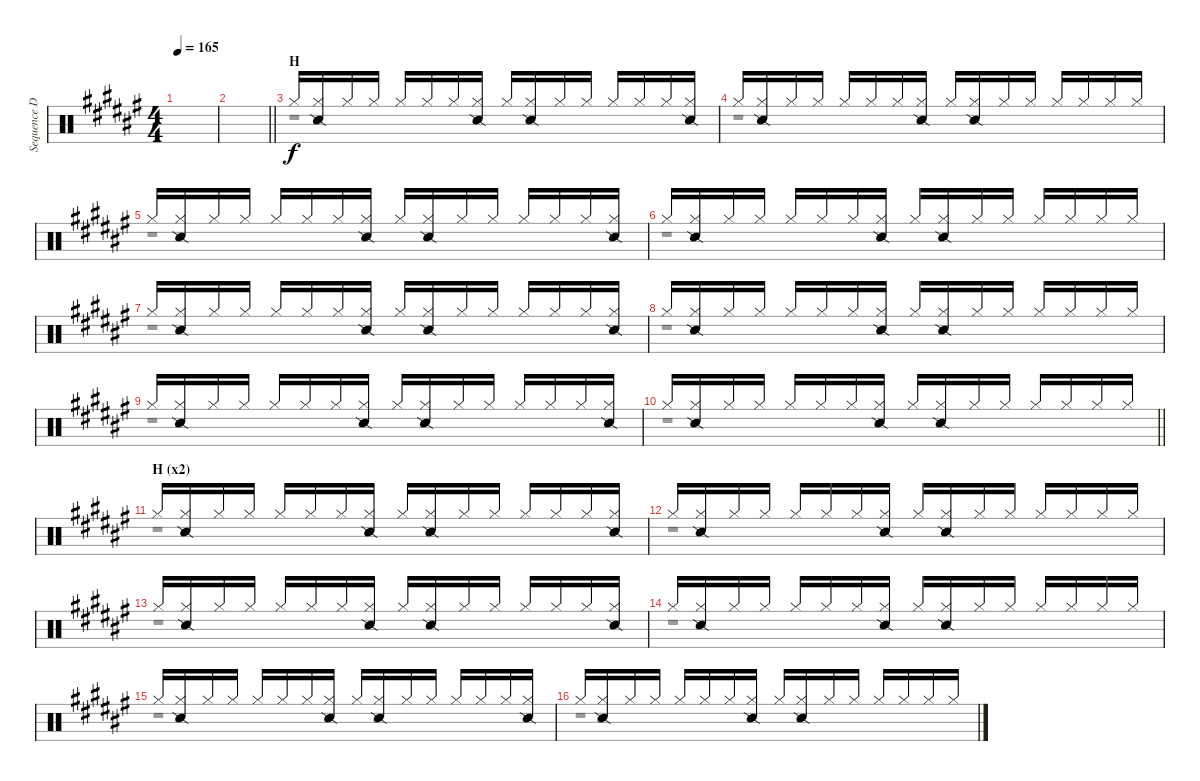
\track ("Sequence Drums" "Sequence D") {instrument percussion}
\staff {score}
\articulation defaults
\voice
\ts (4 4)
\tempo 165
\clef neutral
\ks f#
|
\barLineRight lightlight
|
\section ("" "H")
"Hi-Hat (closed)".16 ("Hi-Hat (closed)" "Snare (side stick) 2").16 "Hi-Hat (closed)".16 "Hi-Hat (closed)".16 "Hi-Hat (closed)".16 "Hi-Hat (closed)".16 "Hi-Hat (closed)".16 ("Hi-Hat (closed)" "Snare (side stick) 2").16 "Hi-Hat (closed)".16 ("Hi-Hat (closed)" "Snare (side stick) 2").16 "Hi-Hat (closed)".16 "Hi-Hat (closed)".16 "Hi-Hat (closed)".16 "Hi-Hat (closed)".16 "Hi-Hat (closed)".16 ("Hi-Hat (closed)" "Snare (side stick) 2").16 |
"Hi-Hat (closed)".16 ("Hi-Hat (closed)" "Snare (side stick) 2").16 "Hi-Hat (closed)".16 "Hi-Hat (closed)".16 "Hi-Hat (closed)".16 "Hi-Hat (closed)".16 "Hi-Hat (closed)".16 ("Hi-Hat (closed)" "Snare (side stick) 2").16 "Hi-Hat (closed)".16 ("Hi-Hat (closed)" "Snare (side stick) 2").16 "Hi-Hat (closed)".16 "Hi-Hat (closed)".16 "Hi-Hat (closed)".16 "Hi-Hat (closed)".16 "Hi-Hat (closed)".16 "Hi-Hat (closed)".16 |
"Hi-Hat (closed)".16 ("Hi-Hat (closed)" "Snare (side stick) 2").16 "Hi-Hat (closed)".16 "Hi-Hat (closed)".16 "Hi-Hat (closed)".16 "Hi-Hat (closed)".16 "Hi-Hat (closed)".16 ("Hi-Hat (closed)" "Snare (side stick) 2").16 "Hi-Hat (closed)".16 ("Hi-Hat (closed)" "Snare (side stick) 2").16 "Hi-Hat (closed)".16 "Hi-Hat (closed)".16 "Hi-Hat (closed)".16 "Hi-Hat (closed)".16 "Hi-Hat (closed)".16 ("Hi-Hat (closed)" "Snare (side stick) 2").16 |
"Hi-Hat (closed)".16 ("Hi-Hat (closed)" "Snare (side stick) 2").16 "Hi-Hat (closed)".16 "Hi-Hat (closed)".16 "Hi-Hat (closed)".16 "Hi-Hat (closed)".16 "Hi-Hat (closed)".16 ("Hi-Hat (closed)" "Snare (side stick) 2").16 "Hi-Hat (closed)".16 ("Hi-Hat (closed)" "Snare (side stick) 2").16 "Hi-Hat (closed)".16 "Hi-Hat (closed)".16 "Hi-Hat (closed)".16 "Hi-Hat (closed)".16 "Hi-Hat (closed)".16 "Hi-Hat (closed)".16 |
"Hi-Hat (closed)".16 ("Hi-Hat (closed)" "Snare (side stick) 2").16 "Hi-Hat (closed)".16 "Hi-Hat (closed)".16 "Hi-Hat (closed)".16 "Hi-Hat (closed)".16 "Hi-Hat (closed)".16 ("Hi-Hat (closed)" "Snare (side stick) 2").16 "Hi-Hat (closed)".16 ("Hi-Hat (closed)" "Snare (side stick) 2").16 "Hi-Hat (closed)".16 "Hi-Hat (closed)".16 "Hi-Hat (closed)".16 "Hi-Hat (closed)".16 "Hi-Hat (closed)".16 ("Hi-Hat (closed)" "Snare (side stick) 2").16 |
"Hi-Hat (closed)".16 ("Hi-Hat (closed)" "Snare (side stick) 2").16 "Hi-Hat (closed)".16 "Hi-Hat (closed)".16 "Hi-Hat (closed)".16 "Hi-Hat (closed)".16 "Hi-Hat (closed)".16 ("Hi-Hat (closed)" "Snare (side stick) 2").16 "Hi-Hat (closed)".16 ("Hi-Hat (closed)" "Snare (side stick) 2").16 "Hi-Hat (closed)".16 "Hi-Hat (closed)".16 "Hi-Hat (closed)".16 "Hi-Hat (closed)".16 "Hi-Hat (closed)".16 "Hi-Hat (closed)".16 |
"Hi-Hat (closed)".16 ("Hi-Hat (closed)" "Snare (side stick) 2").16 "Hi-Hat (closed)".16 "Hi-Hat (closed)".16 "Hi-Hat (closed)".16 "Hi-Hat (closed)".16 "Hi-Hat (closed)".16 ("Hi-Hat (closed)" "Snare (side stick) 2").16 "Hi-Hat (closed)".16 ("Hi-Hat (closed)" "Snare (side stick) 2").16 "Hi-Hat (closed)".16 "Hi-Hat (closed)".16 "Hi-Hat (closed)".16 "Hi-Hat (closed)".16 "Hi-Hat (closed)".16 ("Hi-Hat (closed)" "Snare (side stick) 2").16 |
\barLineRight lightlight "Hi-Hat (closed)".16
("Hi-Hat (closed)" "Snare (side stick) 2").16 "Hi-Hat (closed)".16 "Hi-Hat (closed)".16 "Hi-Hat (closed)".16 "Hi-Hat (closed)".16 "Hi-Hat (closed)".16 ("Hi-Hat (closed)" "Snare (side stick) 2").16 "Hi-Hat (closed)".16 ("Hi-Hat (closed)" "Snare (side stick) 2").16 "Hi-Hat (closed)".16 "Hi-Hat (closed)".16 "Hi-Hat (closed)".16 "Hi-Hat (closed)".16 "Hi-Hat (closed)".16 "Hi-Hat (closed)".16 |
\section ("" "H (x2)")
"Hi-Hat (closed)".16 ("Hi-Hat (closed)" "Snare (side stick) 2").16 "Hi-Hat (closed)".16 "Hi-Hat (closed)".16 "Hi-Hat (closed)".16 "Hi-Hat (closed)".16 "Hi-Hat (closed)".16 ("Hi-Hat (closed)" "Snare (side stick) 2").16 "Hi-Hat (closed)".16 ("Hi-Hat (closed)" "Snare (side stick) 2").16 "Hi-Hat (closed)".16 "Hi-Hat (closed)".16 "Hi-Hat (closed)".16 "Hi-Hat (closed)".16 "Hi-Hat (closed)".16 ("Hi-Hat (closed)" "Snare (side stick) 2").16 |
"Hi-Hat (closed)".16 ("Hi-Hat (closed)" "Snare (side stick) 2").16 "Hi-Hat (closed)".16 "Hi-Hat (closed)".16 "Hi-Hat (closed)".16 "Hi-Hat (closed)".16 "Hi-Hat (closed)".16 ("Hi-Hat (closed)" "Snare (side stick) 2").16 "Hi-Hat (closed)".16 ("Hi-Hat (closed)" "Snare (side stick) 2").16 "Hi-Hat (closed)".16 "Hi-Hat (closed)".16 "Hi-Hat (closed)".16 "Hi-Hat (closed)".16 "Hi-Hat (closed)".16 "Hi-Hat (closed)".16 |
"Hi-Hat (closed)".16 ("Hi-Hat (closed)" "Snare (side stick) 2").16 "Hi-Hat (closed)".16 "Hi-Hat (closed)".16 "Hi-Hat (closed)".16 "Hi-Hat (closed)".16 "Hi-Hat (closed)".16 ("Hi-Hat (closed)" "Snare (side stick) 2").16 "Hi-Hat (closed)".16 ("Hi-Hat (closed)" "Snare (side stick) 2").16 "Hi-Hat (closed)".16 "Hi-Hat (closed)".16 "Hi-Hat (closed)".16 "Hi-Hat (closed)".16 "Hi-Hat (closed)".16 ("Hi-Hat (closed)" "Snare (side stick) 2").16 |
"Hi-Hat (closed)".16 ("Hi-Hat (closed)" "Snare (side stick) 2").16 "Hi-Hat (closed)".16 "Hi-Hat (closed)".16 "Hi-Hat (closed)".16 "Hi-Hat (closed)".16 "Hi-Hat (closed)".16 ("Hi-Hat (closed)" "Snare (side stick) 2").16 "Hi-Hat (closed)".16 ("Hi-Hat (closed)" "Snare (side stick) 2").16 "Hi-Hat (closed)".16 "Hi-Hat (closed)".16 "Hi-Hat (closed)".16 "Hi-Hat (closed)".16 "Hi-Hat (closed)".16 "Hi-Hat (closed)".16 |
"Hi-Hat (closed)".16 ("Hi-Hat (closed)" "Snare (side stick) 2").16 "Hi-Hat (closed)".16 "Hi-Hat (closed)".16 "Hi-Hat (closed)".16 "Hi-Hat (closed)".16 "Hi-Hat (closed)".16 ("Hi-Hat (closed)" "Snare (side stick) 2").16 "Hi-Hat (closed)".16 ("Hi-Hat (closed)" "Snare (side stick) 2").16 "Hi-Hat (closed)".16 "Hi-Hat (closed)".16 "Hi-Hat (closed)".16 "Hi-Hat (closed)".16 "Hi-Hat (closed)".16 ("Hi-Hat (closed)" "Snare (side stick) 2").16 |
"Hi-Hat (closed)".16 ("Hi-Hat (closed)" "Snare (side stick) 2").16 "Hi-Hat (closed)".16 "Hi-Hat (closed)".16 "Hi-Hat (closed)".16 "Hi-Hat (closed)".16 "Hi-Hat (closed)".16 ("Hi-Hat (closed)" "Snare (side stick) 2").16 "Hi-Hat (closed)".16 ("Hi-Hat (closed)" "Snare (side stick) 2").16 "Hi-Hat (closed)".16 "Hi-Hat (closed)".16 "Hi-Hat (closed)".16 "Hi-Hat (closed)".16 "Hi-Hat (closed)".16 "Hi-Hat (closed)".16
\voice
\clef neutral
\ottava regular
\simile none
\ks f#
|
\barLineRight lightlight
|
r.1 |
r.1 |
r.1 |
r.1 |
r.1 |
r.1 |
r.1 |
\barLineRight lightlight
r.1 |
r.1 |
r.1 |
r.1 |
r.1 |
r.1 |
r.1
